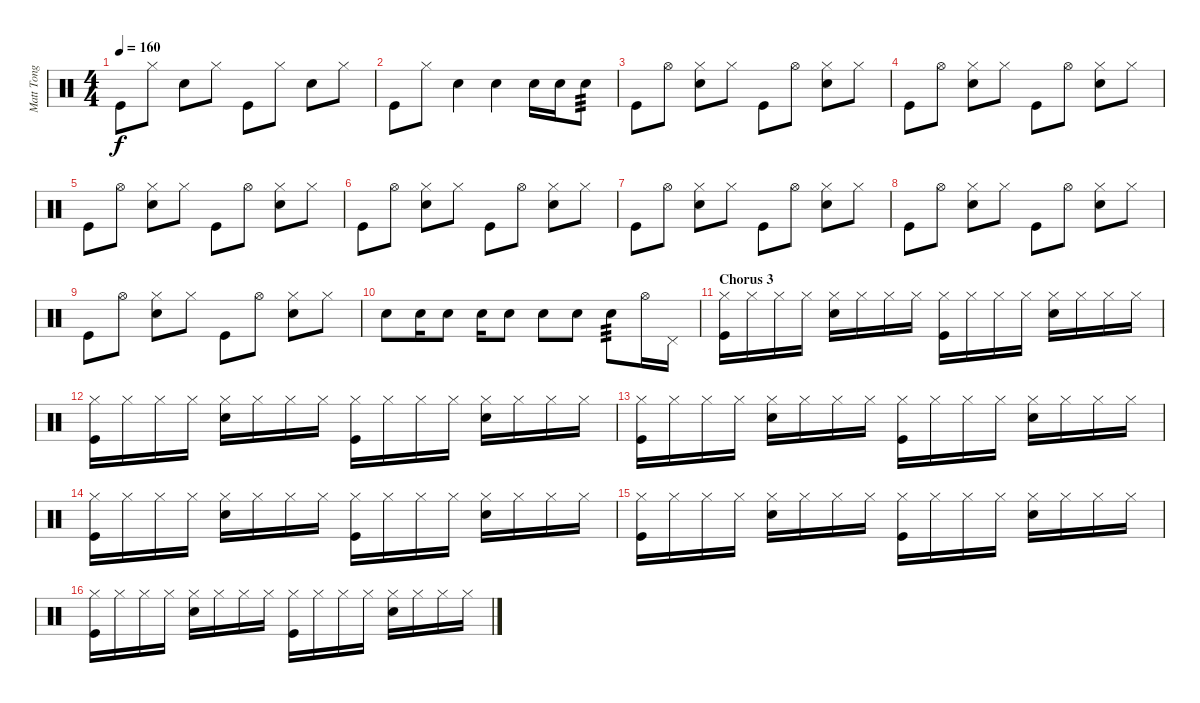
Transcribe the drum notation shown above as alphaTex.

\track ("Matt Tong" "Matt Tong") {instrument percussion}
\staff {score}
\articulation defaults
\ts (4 4)
\tempo 160
\clef neutral
\ks c "Kick (hit)".8{dy f} "Hi-Hat (closed)".8 "Electric Snare (hit)".8 "Hi-Hat (closed)".8 "Kick (hit)".8 "Hi-Hat (closed)".8 "Electric Snare (hit)".8 "Hi-Hat (closed)".8
|
"Kick (hit)".8 "Hi-Hat (closed)".8 "Electric Snare (hit)".4 "Electric Snare (hit)".4 "Electric Snare (hit)".16 "Electric Snare (hit)".16 "Electric Snare (hit)".8{tp 3} |
"Kick (hit)".8 "Hi-Hat (open)".8 ("Hi-Hat (closed)" "Electric Snare (hit)").8 "Hi-Hat (closed)".8 "Kick (hit)".8 "Hi-Hat (open)".8 ("Hi-Hat (closed)" "Electric Snare (hit)").8 "Hi-Hat (closed)".8 |
"Kick (hit)".8 "Hi-Hat (open)".8 ("Hi-Hat (closed)" "Electric Snare (hit)").8 "Hi-Hat (closed)".8 "Kick (hit)".8 "Hi-Hat (open)".8 ("Hi-Hat (closed)" "Electric Snare (hit)").8 "Hi-Hat (closed)".8 |
"Kick (hit)".8 "Hi-Hat (open)".8 ("Hi-Hat (closed)" "Electric Snare (hit)").8 "Hi-Hat (closed)".8 "Kick (hit)".8 "Hi-Hat (open)".8 ("Hi-Hat (closed)" "Electric Snare (hit)").8 "Hi-Hat (closed)".8 |
"Kick (hit)".8 "Hi-Hat (open)".8 ("Hi-Hat (closed)" "Electric Snare (hit)").8 "Hi-Hat (closed)".8 "Kick (hit)".8 "Hi-Hat (open)".8 ("Hi-Hat (closed)" "Electric Snare (hit)").8 "Hi-Hat (closed)".8 |
"Kick (hit)".8 "Hi-Hat (open)".8 ("Hi-Hat (closed)" "Electric Snare (hit)").8 "Hi-Hat (closed)".8 "Kick (hit)".8 "Hi-Hat (open)".8 ("Hi-Hat (closed)" "Electric Snare (hit)").8 "Hi-Hat (closed)".8 |
"Kick (hit)".8 "Hi-Hat (open)".8 ("Hi-Hat (closed)" "Electric Snare (hit)").8 "Hi-Hat (closed)".8 "Kick (hit)".8 "Hi-Hat (open)".8 ("Hi-Hat (closed)" "Electric Snare (hit)").8 "Hi-Hat (closed)".8 |
"Kick (hit)".8 "Hi-Hat (open)".8 ("Hi-Hat (closed)" "Electric Snare (hit)").8 "Hi-Hat (closed)".8 "Kick (hit)".8 "Hi-Hat (open)".8 ("Hi-Hat (closed)" "Electric Snare (hit)").8 "Hi-Hat (closed)".8 |
"Electric Snare (hit)".8 "Electric Snare (hit)".16 "Electric Snare (hit)".8 "Electric Snare (hit)".16 "Electric Snare (hit)".8 "Electric Snare (hit)".8 "Electric Snare (hit)".8 "Electric Snare (hit)".8{tp 3} "Hi-Hat (open)".16 "Pedal Hi-Hat (hit)".16 |
\section ("" "Chorus 3")
("Hi-Hat (closed)" "Kick (hit)").16 "Hi-Hat (closed)".16 "Hi-Hat (closed)".16 "Hi-Hat (closed)".16 ("Hi-Hat (closed)" "Electric Snare (hit)").16 "Hi-Hat (closed)".16 "Hi-Hat (closed)".16 "Hi-Hat (closed)".16 ("Hi-Hat (closed)" "Kick (hit)").16 "Hi-Hat (closed)".16 "Hi-Hat (closed)".16 "Hi-Hat (closed)".16 ("Hi-Hat (closed)" "Electric Snare (hit)").16 "Hi-Hat (closed)".16 "Hi-Hat (closed)".16 "Hi-Hat (closed)".16 |
("Hi-Hat (closed)" "Kick (hit)").16 "Hi-Hat (closed)".16 "Hi-Hat (closed)".16 "Hi-Hat (closed)".16 ("Hi-Hat (closed)" "Electric Snare (hit)").16 "Hi-Hat (closed)".16 "Hi-Hat (closed)".16 "Hi-Hat (closed)".16 ("Hi-Hat (closed)" "Kick (hit)").16 "Hi-Hat (closed)".16 "Hi-Hat (closed)".16 "Hi-Hat (closed)".16 ("Hi-Hat (closed)" "Electric Snare (hit)").16 "Hi-Hat (closed)".16 "Hi-Hat (closed)".16 "Hi-Hat (closed)".16 |
("Hi-Hat (closed)" "Kick (hit)").16 "Hi-Hat (closed)".16 "Hi-Hat (closed)".16 "Hi-Hat (closed)".16 ("Hi-Hat (closed)" "Electric Snare (hit)").16 "Hi-Hat (closed)".16 "Hi-Hat (closed)".16 "Hi-Hat (closed)".16 ("Hi-Hat (closed)" "Kick (hit)").16 "Hi-Hat (closed)".16 "Hi-Hat (closed)".16 "Hi-Hat (closed)".16 ("Hi-Hat (closed)" "Electric Snare (hit)").16 "Hi-Hat (closed)".16 "Hi-Hat (closed)".16 "Hi-Hat (closed)".16 |
("Hi-Hat (closed)" "Kick (hit)").16 "Hi-Hat (closed)".16 "Hi-Hat (closed)".16 "Hi-Hat (closed)".16 ("Hi-Hat (closed)" "Electric Snare (hit)").16 "Hi-Hat (closed)".16 "Hi-Hat (closed)".16 "Hi-Hat (closed)".16 ("Hi-Hat (closed)" "Kick (hit)").16 "Hi-Hat (closed)".16 "Hi-Hat (closed)".16 "Hi-Hat (closed)".16 ("Hi-Hat (closed)" "Electric Snare (hit)").16 "Hi-Hat (closed)".16 "Hi-Hat (closed)".16 "Hi-Hat (closed)".16 |
("Hi-Hat (closed)" "Kick (hit)").16 "Hi-Hat (closed)".16 "Hi-Hat (closed)".16 "Hi-Hat (closed)".16 ("Hi-Hat (closed)" "Electric Snare (hit)").16 "Hi-Hat (closed)".16 "Hi-Hat (closed)".16 "Hi-Hat (closed)".16 ("Hi-Hat (closed)" "Kick (hit)").16 "Hi-Hat (closed)".16 "Hi-Hat (closed)".16 "Hi-Hat (closed)".16 ("Hi-Hat (closed)" "Electric Snare (hit)").16 "Hi-Hat (closed)".16 "Hi-Hat (closed)".16 "Hi-Hat (closed)".16 |
("Hi-Hat (closed)" "Kick (hit)").16 "Hi-Hat (closed)".16 "Hi-Hat (closed)".16 "Hi-Hat (closed)".16 ("Hi-Hat (closed)" "Electric Snare (hit)").16 "Hi-Hat (closed)".16 "Hi-Hat (closed)".16 "Hi-Hat (closed)".16 ("Hi-Hat (closed)" "Kick (hit)").16 "Hi-Hat (closed)".16 "Hi-Hat (closed)".16 "Hi-Hat (closed)".16 ("Hi-Hat (closed)" "Electric Snare (hit)").16 "Hi-Hat (closed)".16 "Hi-Hat (closed)".16 "Hi-Hat (closed)".16
